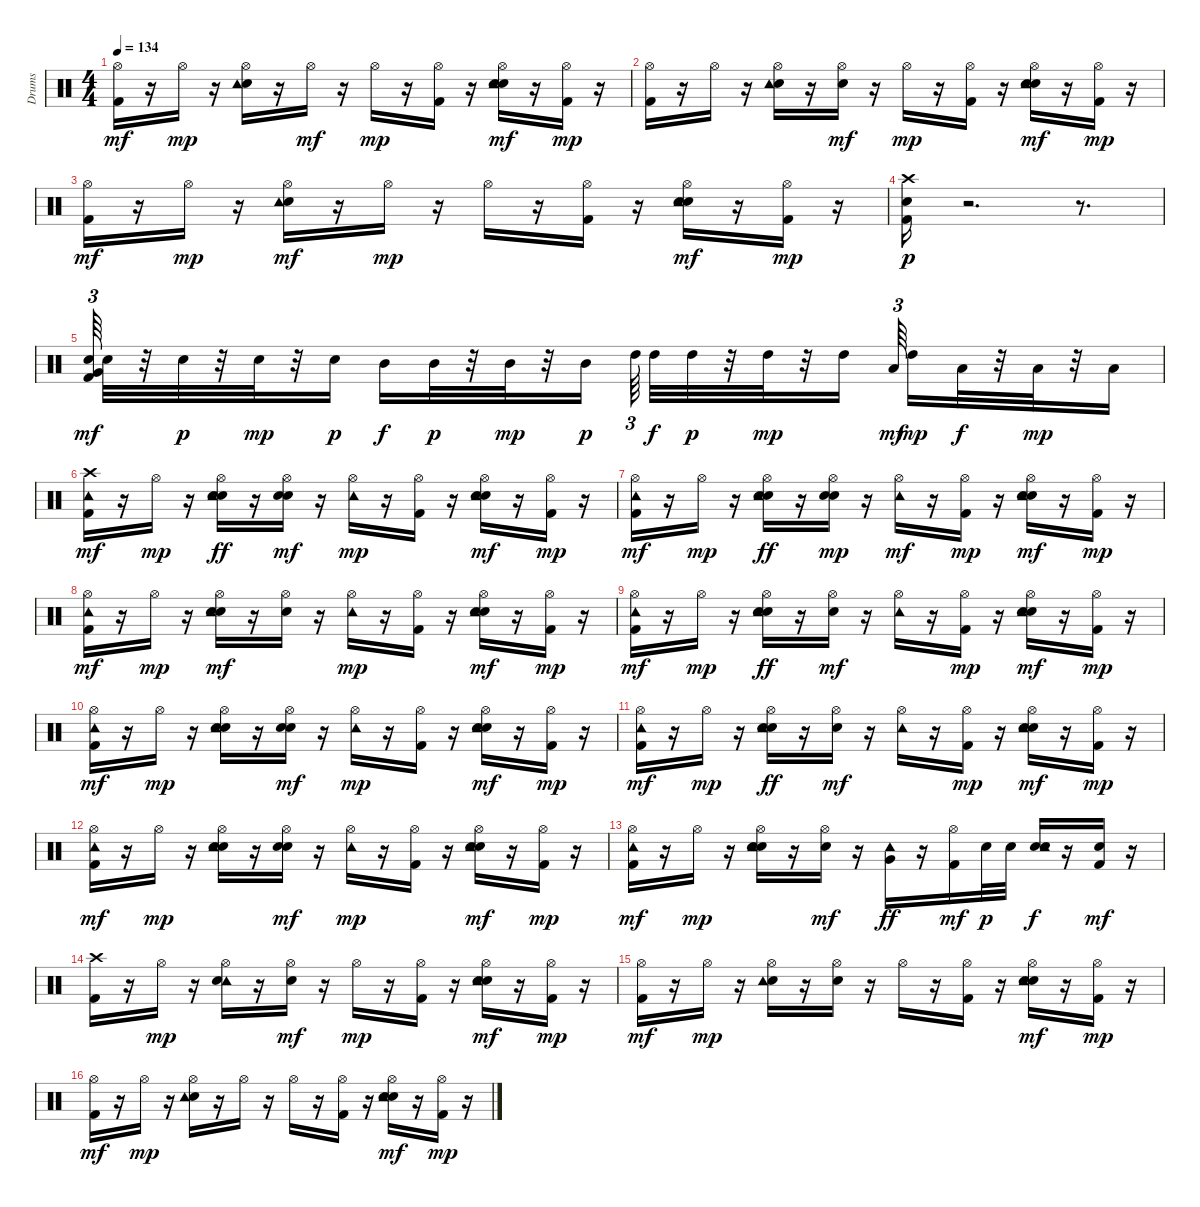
\track ("Drums" "Drums") {instrument percussion}
\staff {score}
\articulation defaults
\ts (4 4)
\tempo 134
\clef neutral
\ks c
("Kick (hit) 2" "Hi-Hat (open)").16{dy mf} r.16 "Hi-Hat (open)".16{dy mp} r.16 ("Hi-Hat (open)" "Snare (hit) 2" "Tambourine (hit)").16 r.16 "Hi-Hat (open)".16{dy mf} r.16 "Hi-Hat (open)".16{dy mp} r.16 ("Kick (hit) 2" "Hi-Hat (open)").16 r.16 ("Hi-Hat (open)" "Snare (hit) 2" "Hand Clap (hit)" "Tambourine (hit)").16{dy mf} r.16 ("Kick (hit) 2" "Hi-Hat (open)").16{dy mp} r.16 |
("Kick (hit) 2" "Hi-Hat (open)").16 r.16 "Hi-Hat (open)".16 r.16 ("Hi-Hat (open)" "Snare (hit) 2" "Tambourine (hit)").16 r.16 ("Hi-Hat (open)" "Snare (hit) 2").16{dy mf} r.16 "Hi-Hat (open)".16{dy mp} r.16 ("Kick (hit) 2" "Hi-Hat (open)").16 r.16 ("Hi-Hat (open)" "Snare (hit) 2" "Hand Clap (hit)" "Tambourine (hit)").16{dy mf} r.16 ("Kick (hit) 2" "Hi-Hat (open)").16{dy mp} r.16 |
("Kick (hit) 2" "Hi-Hat (open)").16{dy mf} r.16 "Hi-Hat (open)".16{dy mp} r.16 ("Snare (hit) 2" "Tambourine (hit)" "Hi-Hat (open)").16{dy mf} r.16 "Hi-Hat (open)".16{dy mp} r.16 "Hi-Hat (open)".16 r.16 ("Kick (hit) 2" "Hi-Hat (open)").16 r.16 ("Hi-Hat (open)" "Snare (hit) 2" "Hand Clap (hit)" "Tambourine (hit)").16{dy mf} r.16 ("Kick (hit) 2" "Hi-Hat (open)").16{dy mp} r.16 |
("Kick (hit) 2" "Snare (hit) 2" "Crash high (hit)").16{dy p} r.2{d} r.8{d} |
("Kick (hit) 2" "Snare (hit) 2" "Very Low Tom (hit)").64{tu (3 2) dy mf} "Snare (hit) 2".32 r.32 "Snare (hit) 2".32{dy p} r.32 "Snare (hit) 2".32{dy mp} r.32 "Snare (hit) 2".16{dy p} "Mid Tom (hit)".16{dy f} "Mid Tom (hit)".32{dy p} r.32 "Mid Tom (hit)".32{dy mp} r.32 "Mid Tom (hit)".16{dy p} "High Tom (hit)".64{tu (3 2) beam splitsecondary} "High Tom (hit)".32{dy f} "High Tom (hit)".32{dy p} r.32 "High Tom (hit)".32{dy mp} r.32 "High Tom (hit)".16 "Low Tom (hit)".64{tu (3 2) dy mf} "High Tom (hit)".16{dy mp} "Low Tom (hit)".32{dy f} r.32 "Low Tom (hit)".32{dy mp} r.32 "Low Tom (hit)".16 |
("Tambourine (hit)" "Kick (hit) 2" "Crash high (hit)").16{dy mf} r.16 "Hi-Hat (open)".16{dy mp} r.16 ("Hi-Hat (open)" "Snare (hit) 2" "Hand Clap (hit)" "Tambourine (hit)").16{dy ff} r.16 ("Hi-Hat (open)" "Snare (hit) 2" "Hand Clap (hit)").16{dy mf} r.16 ("Tambourine (hit)" "Hi-Hat (open)").16{dy mp} r.16 ("Kick (hit) 2" "Hi-Hat (open)").16 r.16 ("Hi-Hat (open)" "Snare (hit) 2" "Hand Clap (hit)" "Tambourine (hit)").16{dy mf} r.16 ("Kick (hit) 2" "Hi-Hat (open)").16{dy mp} r.16 |
("Kick (hit) 2" "Hi-Hat (open)" "Tambourine (hit)").16{dy mf} r.16 "Hi-Hat (open)".16{dy mp} r.16 ("Hi-Hat (open)" "Snare (hit) 2" "Hand Clap (hit)" "Tambourine (hit)").16{dy ff} r.16 ("Hand Clap (hit)" "Hi-Hat (open)" "Snare (hit) 2").16{dy mp} r.16 ("Hi-Hat (open)" "Tambourine (hit)").16{dy mf} r.16 ("Kick (hit) 2" "Hi-Hat (open)").16{dy mp} r.16 ("Hi-Hat (open)" "Snare (hit) 2" "Hand Clap (hit)" "Tambourine (hit)").16{dy mf} r.16 ("Kick (hit) 2" "Hi-Hat (open)").16{dy mp} r.16 |
("Tambourine (hit)" "Kick (hit) 2" "Hi-Hat (open)").16{dy mf} r.16 "Hi-Hat (open)".16{dy mp} r.16 ("Snare (hit) 2" "Hand Clap (hit)" "Tambourine (hit)" "Hi-Hat (open)").16{dy mf} r.16 ("Hi-Hat (open)" "Hand Clap (hit)").16 r.16 ("Tambourine (hit)" "Hi-Hat (open)").16{dy mp} r.16 ("Kick (hit) 2" "Hi-Hat (open)").16 r.16 ("Hi-Hat (open)" "Snare (hit) 2" "Hand Clap (hit)" "Tambourine (hit)").16{dy mf} r.16 ("Kick (hit) 2" "Hi-Hat (open)").16{dy mp} r.16 |
("Kick (hit) 2" "Hi-Hat (open)" "Tambourine (hit)").16{dy mf} r.16 "Hi-Hat (open)".16{dy mp} r.16 ("Hi-Hat (open)" "Snare (hit) 2" "Hand Clap (hit)" "Tambourine (hit)").16{dy ff} r.16 ("Hand Clap (hit)" "Hi-Hat (open)").16{dy mf} r.16 ("Hi-Hat (open)" "Tambourine (hit)").16 r.16 ("Kick (hit) 2" "Hi-Hat (open)").16{dy mp} r.16 ("Hand Clap (hit)" "Tambourine (hit)" "Hi-Hat (open)" "Snare (hit) 2").16{dy mf} r.16 ("Kick (hit) 2" "Hi-Hat (open)").16{dy mp} r.16 |
("Hi-Hat (open)" "Tambourine (hit)" "Kick (hit) 2").16{dy mf} r.16 "Hi-Hat (open)".16{dy mp} r.16 ("Hand Clap (hit)" "Hi-Hat (open)" "Snare (hit) 2" "Tambourine (hit)").16 r.16 ("Hi-Hat (open)" "Snare (hit) 2" "Hand Clap (hit)").16{dy mf} r.16 ("Tambourine (hit)" "Hi-Hat (open)").16{dy mp} r.16 ("Kick (hit) 2" "Hi-Hat (open)").16 r.16 ("Hi-Hat (open)" "Hand Clap (hit)" "Tambourine (hit)" "Snare (hit) 2").16{dy mf} r.16 ("Kick (hit) 2" "Hi-Hat (open)").16{dy mp} r.16 |
("Kick (hit) 2" "Hi-Hat (open)" "Tambourine (hit)").16{dy mf} r.16 "Hi-Hat (open)".16{dy mp} r.16 ("Hi-Hat (open)" "Snare (hit) 2" "Hand Clap (hit)" "Tambourine (hit)").16{dy ff} r.16 ("Hi-Hat (open)" "Hand Clap (hit)").16{dy mf} r.16 ("Hi-Hat (open)" "Tambourine (hit)").16 r.16 ("Kick (hit) 2" "Hi-Hat (open)").16{dy mp} r.16 ("Hi-Hat (open)" "Snare (hit) 2" "Hand Clap (hit)" "Tambourine (hit)").16{dy mf} r.16 ("Kick (hit) 2" "Hi-Hat (open)").16{dy mp} r.16 |
("Kick (hit) 2" "Tambourine (hit)" "Hi-Hat (open)").16{dy mf} r.16 "Hi-Hat (open)".16{dy mp} r.16 ("Hand Clap (hit)" "Tambourine (hit)" "Hi-Hat (open)" "Snare (hit) 2").16 r.16 ("Hi-Hat (open)" "Snare (hit) 2" "Hand Clap (hit)").16{dy mf} r.16 ("Tambourine (hit)" "Hi-Hat (open)").16{dy mp} r.16 ("Kick (hit) 2" "Hi-Hat (open)").16 r.16 ("Hi-Hat (open)" "Snare (hit) 2" "Hand Clap (hit)" "Tambourine (hit)").16{dy mf} r.16 ("Kick (hit) 2" "Hi-Hat (open)").16{dy mp} r.16 |
("Kick (hit) 2" "Hi-Hat (open)" "Tambourine (hit)").16{dy mf} r.16 "Hi-Hat (open)".16{dy mp} r.16 ("Hand Clap (hit)" "Tambourine (hit)" "Hi-Hat (open)" "Snare (hit) 2").16 r.16 ("Hi-Hat (open)" "Hand Clap (hit)").16{dy mf} r.16 ("Tambourine (hit)" "Very Low Tom (hit)").16{dy ff} r.16 ("Kick (hit) 2" "Hi-Hat (open)").16{dy mf} "Snare (hit) 2".32{dy p} "Snare (hit) 2".32 ("Snare (hit) 2" "Hand Clap (hit)" "Tambourine (hit)").16{dy f} r.16 ("Kick (hit) 2" "Snare (hit) 2").16{dy mf} r.16 |
("Crash high (hit)" "Kick (hit) 2").16 r.16 "Hi-Hat (open)".16{dy mp} r.16 ("Hi-Hat (open)" "Tambourine (hit)" "Snare (hit) 2").16 r.16 ("Hi-Hat (open)" "Snare (hit) 2").16{dy mf} r.16 "Hi-Hat (open)".16{dy mp} r.16 ("Kick (hit) 2" "Hi-Hat (open)").16 r.16 ("Hi-Hat (open)" "Snare (hit) 2" "Hand Clap (hit)" "Tambourine (hit)").16{dy mf} r.16 ("Kick (hit) 2" "Hi-Hat (open)").16{dy mp} r.16 |
("Kick (hit) 2" "Hi-Hat (open)").16{dy mf} r.16 "Hi-Hat (open)".16{dy mp} r.16 ("Hi-Hat (open)" "Snare (hit) 2" "Tambourine (hit)").16 r.16 ("Hi-Hat (open)" "Snare (hit) 2").16 r.16 "Hi-Hat (open)".16 r.16 ("Kick (hit) 2" "Hi-Hat (open)").16 r.16 ("Hand Clap (hit)" "Hi-Hat (open)" "Snare (hit) 2" "Tambourine (hit)").16{dy mf} r.16 ("Kick (hit) 2" "Hi-Hat (open)").16{dy mp} r.16 |
("Kick (hit) 2" "Hi-Hat (open)").16{dy mf} r.16 "Hi-Hat (open)".16{dy mp} r.16 ("Hi-Hat (open)" "Snare (hit) 2" "Tambourine (hit)").16 r.16 "Hi-Hat (open)".16 r.16 "Hi-Hat (open)".16 r.16 ("Kick (hit) 2" "Hi-Hat (open)").16 r.16 ("Hi-Hat (open)" "Snare (hit) 2" "Hand Clap (hit)" "Tambourine (hit)").16{dy mf} r.16 ("Kick (hit) 2" "Hi-Hat (open)").16{dy mp} r.16
